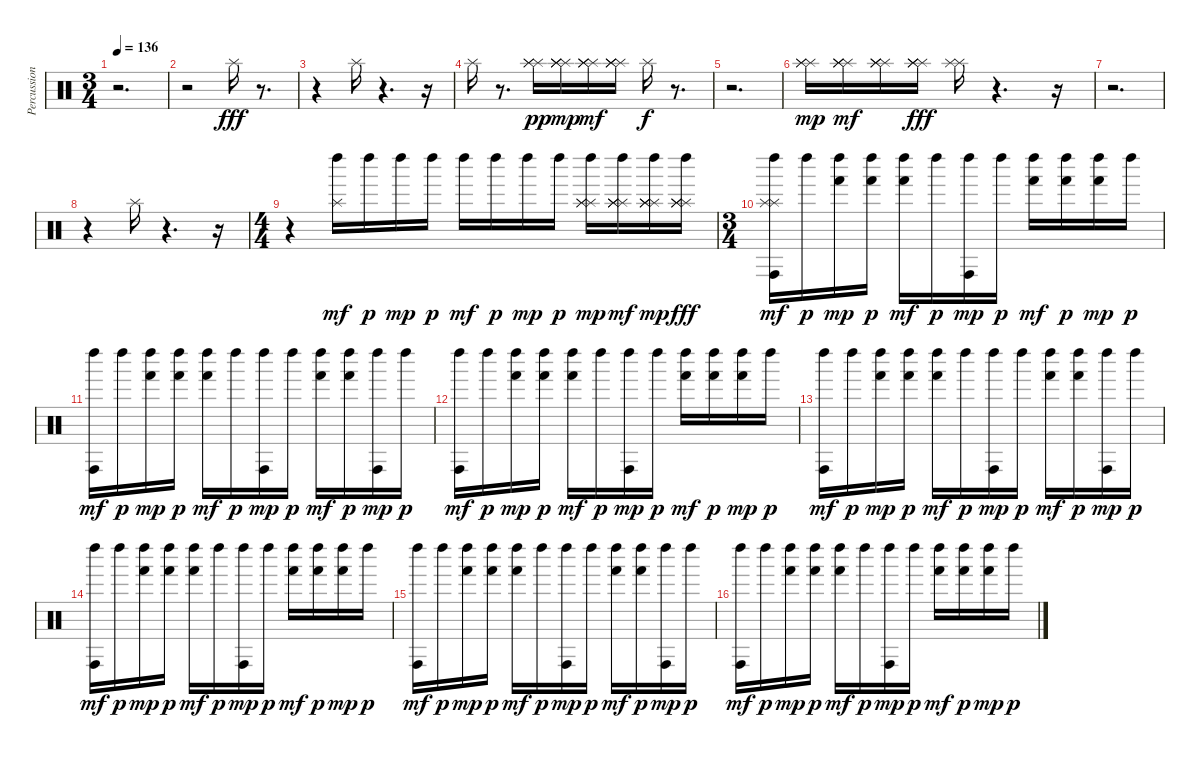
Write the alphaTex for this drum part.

\track ("Percussion" "Percussion") {instrument percussion}
\staff {score}
\articulation defaults
\ts (3 4)
\tempo 136
\clef neutral
\ks c
r.2{d dy fff} |
r.2 "Splash (hit)".16 r.8{d} |
r.4 "Splash (hit)".16 r.4{d} r.16 |
"Splash (hit)".16 r.8{d} ("Splash (hit)" "Splash (hit)" "Splash (hit)").16{dy pp} ("Splash (hit)" "Splash (hit)" "Splash (hit)" "Splash (hit)").16{dy mp} ("Splash (hit)" "Splash (hit)" "Splash (hit)" "Splash (hit)").16{dy mf} ("Splash (hit)" "Splash (hit)" "Splash (hit)" "Splash (hit)").16 "Splash (hit)".16{dy f} r.8{d} |
r.2{d} |
("Splash (hit)" "Splash (hit)" "Splash (hit)").16{dy mp} ("Splash (hit)" "Splash (hit)" "Splash (hit)" "Splash (hit)").16{dy mf} ("Splash (hit)" "Splash (hit)" "Splash (hit)" "Splash (hit)").16 ("Splash (hit)" "Splash (hit)" "Splash (hit)" "Splash (hit)").16{dy fff} ("Splash (hit)" "Splash (hit)").16 r.4{d} r.16 |
r.2{d} |
r.4 "Splash (hit)".16 r.4{d} r.16 |
\ts (4 4)
r.4 ("Splash (hit)" "Left Maraca (hit)").16{dy mf} "Left Maraca (hit)".16{dy p} "Left Maraca (hit)".16{dy mp} "Left Maraca (hit)".16{dy p} "Left Maraca (hit)".16{dy mf} "Left Maraca (hit)".16{dy p} "Left Maraca (hit)".16{dy mp} "Left Maraca (hit)".16{dy p} ("Splash (hit)" "Left Maraca (hit)" "Splash (hit)" "Splash (hit)").16{dy mp} ("Splash (hit)" "Splash (hit)" "Left Maraca (hit)" "Splash (hit)" "Splash (hit)").16{dy mf} ("Splash (hit)" "Splash (hit)" "Left Maraca (hit)" "Splash (hit)" "Splash (hit)").16{dy mp} ("Splash (hit)" "Splash (hit)" "Left Maraca (hit)" "Splash (hit)" "Splash (hit)").16{dy fff} |
\ts (3 4)
("Splash (hit)" "Splash (hit)" "Conga high (hit)" "Left Maraca (hit)").16{dy mf} "Left Maraca (hit)".16{dy p} ("Hand (hit)" "Left Maraca (hit)").16{dy mp} ("Hand (hit)" "Left Maraca (hit)").16{dy p} ("Hand (hit)" "Left Maraca (hit)").16{dy mf} "Left Maraca (hit)".16{dy p} ("Conga high (hit)" "Left Maraca (hit)").16{dy mp} "Left Maraca (hit)".16{dy p} ("Hand (hit)" "Left Maraca (hit)").16{dy mf} ("Hand (hit)" "Left Maraca (hit)").16{dy p} ("Hand (hit)" "Left Maraca (hit)").16{dy mp} "Left Maraca (hit)".16{dy p} |
("Conga high (hit)" "Left Maraca (hit)").16{dy mf} "Left Maraca (hit)".16{dy p} ("Hand (hit)" "Left Maraca (hit)").16{dy mp} ("Hand (hit)" "Left Maraca (hit)").16{dy p} ("Hand (hit)" "Left Maraca (hit)").16{dy mf} "Left Maraca (hit)".16{dy p} ("Conga high (hit)" "Left Maraca (hit)").16{dy mp} "Left Maraca (hit)".16{dy p} ("Hand (hit)" "Left Maraca (hit)").16{dy mf} ("Hand (hit)" "Left Maraca (hit)").16{dy p} ("Conga high (hit)" "Left Maraca (hit)").16{dy mp} "Left Maraca (hit)".16{dy p} |
("Conga high (hit)" "Left Maraca (hit)").16{dy mf} "Left Maraca (hit)".16{dy p} ("Hand (hit)" "Left Maraca (hit)").16{dy mp} ("Hand (hit)" "Left Maraca (hit)").16{dy p} ("Hand (hit)" "Left Maraca (hit)").16{dy mf} "Left Maraca (hit)".16{dy p} ("Conga high (hit)" "Left Maraca (hit)").16{dy mp} "Left Maraca (hit)".16{dy p} ("Hand (hit)" "Left Maraca (hit)").16{dy mf} ("Hand (hit)" "Left Maraca (hit)").16{dy p} ("Hand (hit)" "Left Maraca (hit)").16{dy mp} "Left Maraca (hit)".16{dy p} |
("Conga high (hit)" "Left Maraca (hit)").16{dy mf} "Left Maraca (hit)".16{dy p} ("Hand (hit)" "Left Maraca (hit)").16{dy mp} ("Hand (hit)" "Left Maraca (hit)").16{dy p} ("Hand (hit)" "Left Maraca (hit)").16{dy mf} "Left Maraca (hit)".16{dy p} ("Conga high (hit)" "Left Maraca (hit)").16{dy mp} "Left Maraca (hit)".16{dy p} ("Hand (hit)" "Left Maraca (hit)").16{dy mf} ("Hand (hit)" "Left Maraca (hit)").16{dy p} ("Conga high (hit)" "Left Maraca (hit)").16{dy mp} "Left Maraca (hit)".16{dy p} |
("Conga high (hit)" "Left Maraca (hit)").16{dy mf} "Left Maraca (hit)".16{dy p} ("Hand (hit)" "Left Maraca (hit)").16{dy mp} ("Hand (hit)" "Left Maraca (hit)").16{dy p} ("Hand (hit)" "Left Maraca (hit)").16{dy mf} "Left Maraca (hit)".16{dy p} ("Conga high (hit)" "Left Maraca (hit)").16{dy mp} "Left Maraca (hit)".16{dy p} ("Hand (hit)" "Left Maraca (hit)").16{dy mf} ("Hand (hit)" "Left Maraca (hit)").16{dy p} ("Hand (hit)" "Left Maraca (hit)").16{dy mp} "Left Maraca (hit)".16{dy p} |
("Conga high (hit)" "Left Maraca (hit)").16{dy mf} "Left Maraca (hit)".16{dy p} ("Hand (hit)" "Left Maraca (hit)").16{dy mp} ("Hand (hit)" "Left Maraca (hit)").16{dy p} ("Hand (hit)" "Left Maraca (hit)").16{dy mf} "Left Maraca (hit)".16{dy p} ("Conga high (hit)" "Left Maraca (hit)").16{dy mp} "Left Maraca (hit)".16{dy p} ("Hand (hit)" "Left Maraca (hit)").16{dy mf} ("Hand (hit)" "Left Maraca (hit)").16{dy p} ("Conga high (hit)" "Left Maraca (hit)").16{dy mp} "Left Maraca (hit)".16{dy p} |
("Conga high (hit)" "Left Maraca (hit)").16{dy mf} "Left Maraca (hit)".16{dy p} ("Hand (hit)" "Left Maraca (hit)").16{dy mp} ("Hand (hit)" "Left Maraca (hit)").16{dy p} ("Hand (hit)" "Left Maraca (hit)").16{dy mf} "Left Maraca (hit)".16{dy p} ("Conga high (hit)" "Left Maraca (hit)").16{dy mp} "Left Maraca (hit)".16{dy p} ("Hand (hit)" "Left Maraca (hit)").16{dy mf} ("Hand (hit)" "Left Maraca (hit)").16{dy p} ("Hand (hit)" "Left Maraca (hit)").16{dy mp} "Left Maraca (hit)".16{dy p}
